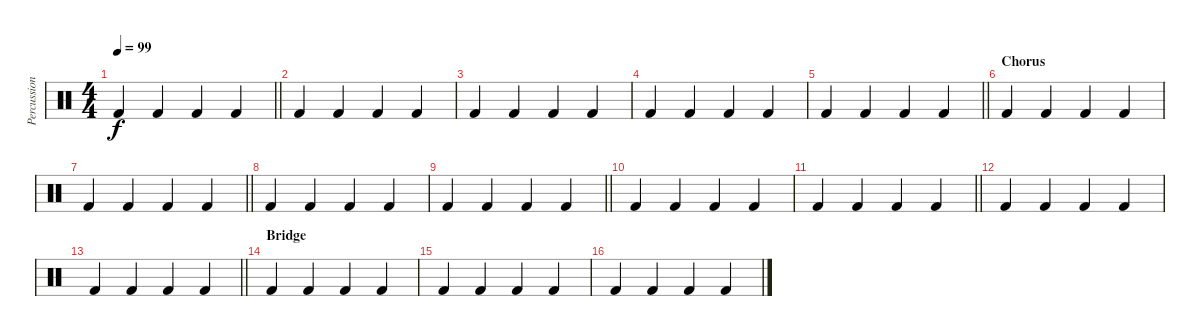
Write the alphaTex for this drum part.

\track ("Percussion" "Percussion") {instrument percussion}
\staff {score}
\articulation defaults
\ts (4 4)
\tempo 99
\clef neutral
\barLineRight lightlight
\ks c "Kick (hit) 2".4{dy f} "Kick (hit) 2".4 "Kick (hit) 2".4 "Kick (hit) 2".4
|
"Kick (hit) 2".4 "Kick (hit) 2".4 "Kick (hit) 2".4 "Kick (hit) 2".4 |
"Kick (hit) 2".4 "Kick (hit) 2".4 "Kick (hit) 2".4 "Kick (hit) 2".4 |
"Kick (hit) 2".4 "Kick (hit) 2".4 "Kick (hit) 2".4 "Kick (hit) 2".4 |
\barLineRight lightlight "Kick (hit) 2".4 "Kick (hit) 2".4 "Kick (hit) 2".4 "Kick (hit) 2".4
|
\section ("" "Chorus")
"Kick (hit) 2".4 "Kick (hit) 2".4 "Kick (hit) 2".4 "Kick (hit) 2".4 |
\barLineRight lightlight "Kick (hit) 2".4 "Kick (hit) 2".4 "Kick (hit) 2".4 "Kick (hit) 2".4
|
"Kick (hit) 2".4 "Kick (hit) 2".4 "Kick (hit) 2".4 "Kick (hit) 2".4 |
\barLineRight lightlight "Kick (hit) 2".4 "Kick (hit) 2".4 "Kick (hit) 2".4 "Kick (hit) 2".4
|
"Kick (hit) 2".4 "Kick (hit) 2".4 "Kick (hit) 2".4 "Kick (hit) 2".4 |
\barLineRight lightlight "Kick (hit) 2".4 "Kick (hit) 2".4 "Kick (hit) 2".4 "Kick (hit) 2".4
|
"Kick (hit) 2".4 "Kick (hit) 2".4 "Kick (hit) 2".4 "Kick (hit) 2".4 |
\barLineRight lightlight "Kick (hit) 2".4 "Kick (hit) 2".4 "Kick (hit) 2".4 "Kick (hit) 2".4
|
\section ("" "Bridge")
"Kick (hit) 2".4 "Kick (hit) 2".4 "Kick (hit) 2".4 "Kick (hit) 2".4 |
"Kick (hit) 2".4 "Kick (hit) 2".4 "Kick (hit) 2".4 "Kick (hit) 2".4 |
"Kick (hit) 2".4 "Kick (hit) 2".4 "Kick (hit) 2".4 "Kick (hit) 2".4
